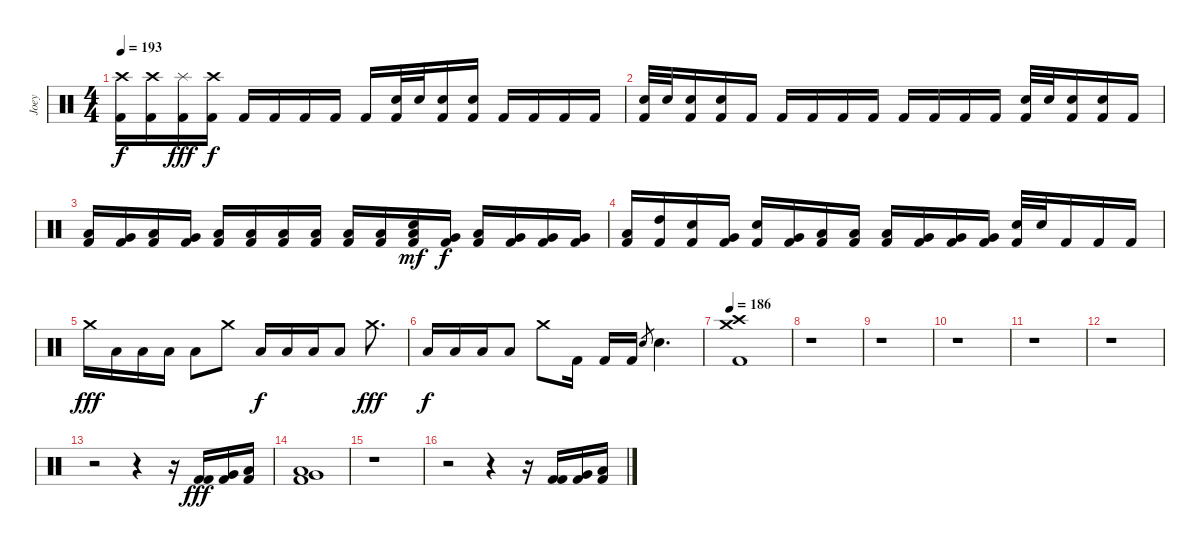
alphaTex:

\track ("Joey" "Joey") {instrument percussion}
\staff {score}
\articulation defaults
\ts (4 4)
\tempo 193
\clef neutral
\ks c
("Crash high (hit)" "Kick (hit) 2").16{dy f} ("Crash high (hit)" "Kick (hit) 2").16 ("Splash (hit)" "Kick (hit) 2").16{dy fff} ("Crash high (hit)" "Kick (hit) 2").16{dy f} "Kick (hit) 2".16 "Kick (hit) 2".16 "Kick (hit) 2".16 "Kick (hit) 2".16 "Kick (hit) 2".16 ("Electric Snare (hit)" "Kick (hit) 2").32 "Electric Snare (hit)".32 ("Electric Snare (hit)" "Kick (hit) 2").16 ("Electric Snare (hit)" "Kick (hit) 2").16 "Kick (hit) 2".16 "Kick (hit) 2".16 "Kick (hit) 2".16 "Kick (hit) 2".16 |
("Electric Snare (hit)" "Kick (hit) 2").32 "Electric Snare (hit)".32 ("Electric Snare (hit)" "Kick (hit) 2").16 ("Electric Snare (hit)" "Kick (hit) 2").16 "Kick (hit) 2".16 "Kick (hit) 2".16 "Kick (hit) 2".16 "Kick (hit) 2".16 "Kick (hit) 2".16 "Kick (hit) 2".16 "Kick (hit) 2".16 "Kick (hit) 2".16 "Kick (hit) 2".16 ("Electric Snare (hit)" "Kick (hit) 2").32 "Electric Snare (hit)".32 ("Electric Snare (hit)" "Kick (hit) 2").16 ("Electric Snare (hit)" "Kick (hit) 2").16 "Kick (hit) 2".16 |
("Low Tom (hit)" "Kick (hit) 2").16 ("Very Low Tom (hit)" "Kick (hit) 2").16 ("Low Tom (hit)" "Kick (hit) 2").16 ("Very Low Tom (hit)" "Kick (hit) 2").16 ("Low Floor Tom (hit)" "Kick (hit) 2").16 ("Low Floor Tom (hit)" "Kick (hit) 2").16 ("Low Floor Tom (hit)" "Kick (hit) 2").16 ("Low Tom (hit)" "Kick (hit) 2").16 ("Low Floor Tom (hit)" "Kick (hit) 2").16 ("Low Floor Tom (hit)" "Kick (hit) 2").16 ("Electric Snare (hit)" "Low Floor Tom (hit)" "Kick (hit) 2").16{dy mf} ("Very Low Tom (hit)" "Kick (hit) 2").16{dy f} ("Low Floor Tom (hit)" "Kick (hit) 2").16 ("Very Low Tom (hit)" "Kick (hit) 2").16 ("Very Low Tom (hit)" "Kick (hit) 2").16 ("Very Low Tom (hit)" "Kick (hit) 2").16 |
("Low Tom (hit)" "Kick (hit) 2").16 ("High Tom (hit)" "Kick (hit) 2").16 ("Electric Snare (hit)" "Kick (hit) 2").16 ("Very Low Tom (hit)" "Kick (hit) 2").16 ("Electric Snare (hit)" "Kick (hit) 2").16 ("Very Low Tom (hit)" "Kick (hit) 2").16 ("Low Floor Tom (hit)" "Kick (hit) 2").16 ("Low Floor Tom (hit)" "Kick (hit) 2").16 ("Low Tom (hit)" "Kick (hit) 2").16 ("Very Low Tom (hit)" "Kick (hit) 2").16 ("Very Low Tom (hit)" "Kick (hit) 2").16 ("Very Low Tom (hit)" "Kick (hit) 2").16 ("Electric Snare (hit)" "Kick (hit) 2").32 "Electric Snare (hit)".32 "Kick (hit) 2".16 "Kick (hit) 2".16 "Kick (hit) 2".16 |
"Crash medium (hit)".16{dy fff} "Low Tom (hit)".16 "Low Tom (hit)".16 "Low Tom (hit)".16 "Low Tom (hit)".8 "Crash medium (hit)".8 "Low Tom (hit)".16{dy f} "Low Tom (hit)".16 "Low Tom (hit)".16 "Low Tom (hit)".8 "Crash medium (hit)".8{d dy fff} |
"Low Tom (hit)".16{dy f} "Low Tom (hit)".16 "Low Tom (hit)".16 "Low Tom (hit)".8 "Crash medium (hit)".8 "Kick (hit) 2".16 "Kick (hit) 2".16 "Kick (hit) 2".16 "Electric Snare (hit)".8{gr} "Electric Snare (hit)".4{d} |
\tempo 186
("Crash high (hit)" "Crash medium (hit)" "Kick (hit) 2").1 |
r.1 |
r.1 |
r.1 |
r.1 |
r.1 |
r.2 r.4 r.16 ("Kick (hit) 2" "Kick (hit) 2").16{dy fff} ("Very Low Tom (hit)" "Kick (hit) 2").16 ("Low Floor Tom (hit)" "Kick (hit) 2").16 |
("Very Low Tom (hit)" "Low Floor Tom (hit)" "Kick (hit) 2").1 |
r.1 |
r.2 r.4 r.16 ("Kick (hit) 2" "Kick (hit) 2").16 ("Very Low Tom (hit)" "Kick (hit) 2").16 ("Low Floor Tom (hit)" "Kick (hit) 2").16
